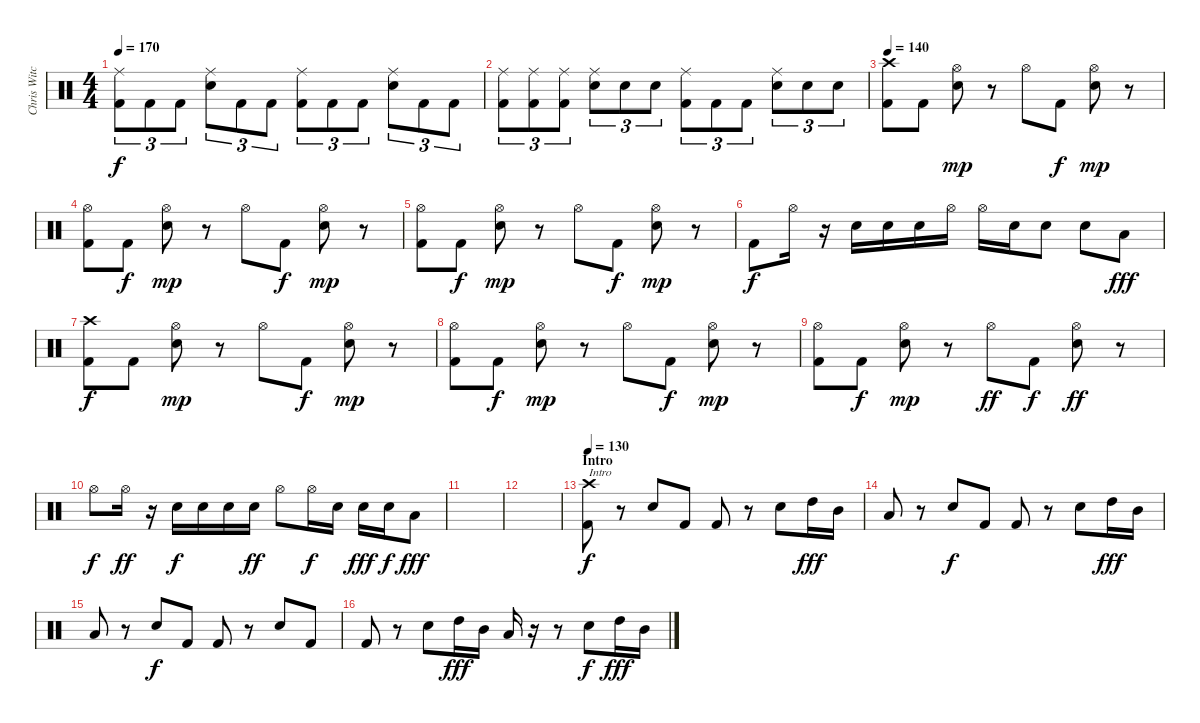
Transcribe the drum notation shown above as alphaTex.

\track ("Chris Witchhunter" "Chris Witc") {instrument percussion}
\staff {score}
\articulation defaults
\ts (4 4)
\tempo 170
\clef neutral
\ks c
("Ride (middle)" "Kick (hit) 2").8{tu (3 2) dy f} "Kick (hit) 2".8{tu (3 2)} "Kick (hit) 2".8{tu (3 2)} ("Ride (middle)" "Electric Snare (hit)").8{tu (3 2)} "Kick (hit) 2".8{tu (3 2)} "Kick (hit) 2".8{tu (3 2)} ("Ride (middle)" "Kick (hit) 2").8{tu (3 2)} "Kick (hit) 2".8{tu (3 2)} "Kick (hit) 2".8{tu (3 2)} ("Ride (middle)" "Electric Snare (hit)").8{tu (3 2)} "Kick (hit) 2".8{tu (3 2)} "Kick (hit) 2".8{tu (3 2)} |
("Ride (middle)" "Kick (hit) 2").8{tu (3 2)} ("Ride (middle)" "Kick (hit) 2").8{tu (3 2)} ("Ride (middle)" "Kick (hit) 2").8{tu (3 2)} ("Ride (middle)" "Electric Snare (hit)").8{tu (3 2)} "Snare (hit) 2".8{tu (3 2)} "Electric Snare (hit)".8{tu (3 2)} ("Ride (middle)" "Kick (hit) 2").8{tu (3 2)} "Kick (hit) 2".8{tu (3 2)} "Kick (hit) 2".8{tu (3 2)} ("Ride (middle)" "Electric Snare (hit)").8{tu (3 2)} "Snare (hit) 2".8{tu (3 2)} "Electric Snare (hit)".8{tu (3 2)} |
\tempo 140
("Crash high (hit)" "Kick (hit) 2").8 "Kick (hit) 2".8 ("Hi-Hat (open)" "Electric Snare (hit)").8{dy mp} r.8 "Hi-Hat (open)".8 "Kick (hit) 2".8{dy f} ("Hi-Hat (open)" "Electric Snare (hit)").8{dy mp} r.8 |
("Hi-Hat (open)" "Kick (hit) 2").8 "Kick (hit) 2".8{dy f} ("Hi-Hat (open)" "Electric Snare (hit)").8{dy mp} r.8 "Hi-Hat (open)".8 "Kick (hit) 2".8{dy f} ("Hi-Hat (open)" "Electric Snare (hit)").8{dy mp} r.8 |
("Hi-Hat (open)" "Kick (hit) 2").8 "Kick (hit) 2".8{dy f} ("Hi-Hat (open)" "Electric Snare (hit)").8{dy mp} r.8 "Hi-Hat (open)".8 "Kick (hit) 2".8{dy f} ("Hi-Hat (open)" "Electric Snare (hit)").8{dy mp} r.8 |
"Kick (hit) 2".8{dy f} "Hi-Hat (open)".16 r.16 "Electric Snare (hit)".16 "Electric Snare (hit)".16 "Electric Snare (hit)".16 "Hi-Hat (open)".16 "Hi-Hat (open)".16 "Electric Snare (hit)".16 "Electric Snare (hit)".8 "Electric Snare (hit)".8 "Low Tom (hit)".8{dy fff} |
("Crash high (hit)" "Kick (hit) 2").8{dy f} "Kick (hit) 2".8 ("Hi-Hat (open)" "Electric Snare (hit)").8{dy mp} r.8 "Hi-Hat (open)".8 "Kick (hit) 2".8{dy f} ("Hi-Hat (open)" "Electric Snare (hit)").8{dy mp} r.8 |
("Hi-Hat (open)" "Kick (hit) 2").8 "Kick (hit) 2".8{dy f} ("Hi-Hat (open)" "Electric Snare (hit)").8{dy mp} r.8 "Hi-Hat (open)".8 "Kick (hit) 2".8{dy f} ("Hi-Hat (open)" "Electric Snare (hit)").8{dy mp} r.8 |
("Hi-Hat (open)" "Kick (hit) 2").8 "Kick (hit) 2".8{dy f} ("Hi-Hat (open)" "Electric Snare (hit)").8{dy mp} r.8 "Hi-Hat (open)".8{dy ff} "Kick (hit) 2".8{dy f} ("Hi-Hat (open)" "Electric Snare (hit)").8{dy ff} r.8 |
"Hi-Hat (open)".8{dy f} "Hi-Hat (open)".16{dy ff} r.16 "Electric Snare (hit)".16{dy f} "Electric Snare (hit)".16 "Electric Snare (hit)".16 "Electric Snare (hit)".16{dy ff} "Hi-Hat (open)".8 "Hi-Hat (open)".16{dy f} "Electric Snare (hit)".16 "Electric Snare (hit)".16{dy fff} "Electric Snare (hit)".16{dy f} "Low Tom (hit)".8{dy fff} |
|
|
\section ("" "Intro")
\tempo 130
("Crash high (hit)" "Kick (hit) 2").8{txt "Intro" dy f} r.8 "Electric Snare (hit)".8 "Kick (hit) 2".8 "Kick (hit) 2".8 r.8 "Electric Snare (hit)".8 "High Tom (hit)".16{dy fff} "Mid Tom (hit)".16 |
"Low Tom (hit)".8 r.8 "Electric Snare (hit)".8{dy f} "Kick (hit) 2".8 "Kick (hit) 2".8 r.8 "Electric Snare (hit)".8 "High Tom (hit)".16{dy fff} "Mid Tom (hit)".16 |
"Low Tom (hit)".8 r.8 "Electric Snare (hit)".8{dy f} "Kick (hit) 2".8 "Kick (hit) 2".8 r.8 "Electric Snare (hit)".8 "Kick (hit) 2".8 |
"Kick (hit) 2".8 r.8 "Electric Snare (hit)".8 "High Tom (hit)".16{dy fff} "Mid Tom (hit)".16 "Low Tom (hit)".16 r.16 r.8 "Electric Snare (hit)".8{dy f} "High Tom (hit)".16{dy fff} "Mid Tom (hit)".16
